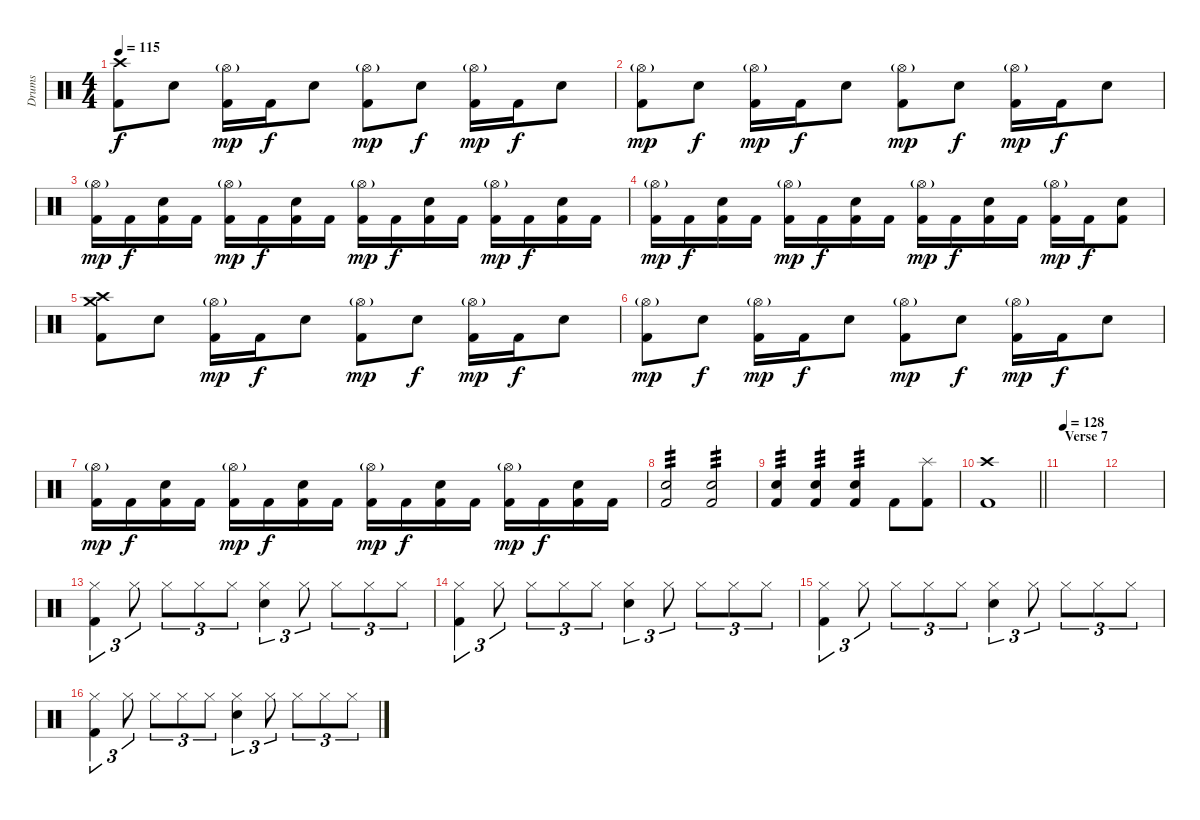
\track ("Drums" "Drums") {instrument percussion}
\staff {score}
\articulation defaults
\ts (4 4)
\tempo 115
\clef neutral
\ks c
("Crash high (hit)" "Kick (hit) 2").8{dy f} "Electric Snare (hit)".8 ("Hi-Hat (open)"{g} "Kick (hit) 2").16{dy mp} "Kick (hit) 2".16{dy f} "Electric Snare (hit)".8 ("Hi-Hat (open)"{g} "Kick (hit) 2").8{dy mp} "Electric Snare (hit)".8{dy f} ("Hi-Hat (open)"{g} "Kick (hit) 2").16{dy mp} "Kick (hit) 2".16{dy f} "Electric Snare (hit)".8 |
("Hi-Hat (open)"{g} "Kick (hit) 2").8{dy mp} "Electric Snare (hit)".8{dy f} ("Hi-Hat (open)"{g} "Kick (hit) 2").16{dy mp} "Kick (hit) 2".16{dy f} "Electric Snare (hit)".8 ("Hi-Hat (open)"{g} "Kick (hit) 2").8{dy mp} "Electric Snare (hit)".8{dy f} ("Hi-Hat (open)"{g} "Kick (hit) 2").16{dy mp} "Kick (hit) 2".16{dy f} "Electric Snare (hit)".8 |
("Hi-Hat (open)"{g} "Kick (hit) 2").16{dy mp} "Kick (hit) 2".16{dy f} ("Electric Snare (hit)" "Kick (hit) 2").16 "Kick (hit) 2".16 ("Hi-Hat (open)"{g} "Kick (hit) 2").16{dy mp} "Kick (hit) 2".16{dy f} ("Electric Snare (hit)" "Kick (hit) 2").16 "Kick (hit) 2".16 ("Hi-Hat (open)"{g} "Kick (hit) 2").16{dy mp} "Kick (hit) 2".16{dy f} ("Electric Snare (hit)" "Kick (hit) 2").16 "Kick (hit) 2".16 ("Hi-Hat (open)"{g} "Kick (hit) 2").16{dy mp} "Kick (hit) 2".16{dy f} ("Electric Snare (hit)" "Kick (hit) 2").16 "Kick (hit) 2".16 |
("Hi-Hat (open)"{g} "Kick (hit) 2").16{dy mp} "Kick (hit) 2".16{dy f} ("Electric Snare (hit)" "Kick (hit) 2").16 "Kick (hit) 2".16 ("Hi-Hat (open)"{g} "Kick (hit) 2").16{dy mp} "Kick (hit) 2".16{dy f} ("Electric Snare (hit)" "Kick (hit) 2").16 "Kick (hit) 2".16 ("Hi-Hat (open)"{g} "Kick (hit) 2").16{dy mp} "Kick (hit) 2".16{dy f} ("Electric Snare (hit)" "Kick (hit) 2").16 "Kick (hit) 2".16 ("Hi-Hat (open)"{g} "Kick (hit) 2").16{dy mp} "Kick (hit) 2".16{dy f} ("Electric Snare (hit)" "Kick (hit) 2").8 |
("Crash high (hit)" "Crash medium (hit)" "Kick (hit) 2").8 "Electric Snare (hit)".8 ("Hi-Hat (open)"{g} "Kick (hit) 2").16{dy mp} "Kick (hit) 2".16{dy f} "Electric Snare (hit)".8 ("Hi-Hat (open)"{g} "Kick (hit) 2").8{dy mp} "Electric Snare (hit)".8{dy f} ("Hi-Hat (open)"{g} "Kick (hit) 2").16{dy mp} "Kick (hit) 2".16{dy f} "Electric Snare (hit)".8 |
("Hi-Hat (open)"{g} "Kick (hit) 2").8{dy mp} "Electric Snare (hit)".8{dy f} ("Hi-Hat (open)"{g} "Kick (hit) 2").16{dy mp} "Kick (hit) 2".16{dy f} "Electric Snare (hit)".8 ("Hi-Hat (open)"{g} "Kick (hit) 2").8{dy mp} "Electric Snare (hit)".8{dy f} ("Hi-Hat (open)"{g} "Kick (hit) 2").16{dy mp} "Kick (hit) 2".16{dy f} "Electric Snare (hit)".8 |
("Hi-Hat (open)"{g} "Kick (hit) 2").16{dy mp} "Kick (hit) 2".16{dy f} ("Electric Snare (hit)" "Kick (hit) 2").16 "Kick (hit) 2".16 ("Hi-Hat (open)"{g} "Kick (hit) 2").16{dy mp} "Kick (hit) 2".16{dy f} ("Electric Snare (hit)" "Kick (hit) 2").16 "Kick (hit) 2".16 ("Hi-Hat (open)"{g} "Kick (hit) 2").16{dy mp} "Kick (hit) 2".16{dy f} ("Electric Snare (hit)" "Kick (hit) 2").16 "Kick (hit) 2".16 ("Hi-Hat (open)"{g} "Kick (hit) 2").16{dy mp} "Kick (hit) 2".16{dy f} ("Electric Snare (hit)" "Kick (hit) 2").16 "Kick (hit) 2".16 |
("Electric Snare (hit)" "Kick (hit) 2").2{tp 3} ("Electric Snare (hit)" "Kick (hit) 2").2{tp 3} |
("Electric Snare (hit)" "Kick (hit) 2").4{tp 3} ("Electric Snare (hit)" "Kick (hit) 2").4{tp 3} ("Electric Snare (hit)" "Kick (hit) 2").4{tp 3} "Kick (hit) 2".8 ("Splash (hit)" "Kick (hit) 2").8 |
\barLineRight lightlight
("Crash high (hit)" "Kick (hit) 2").1 |
\section ("" "Verse 7")
\tempo 128
|
|
("Hi-Hat (closed)" "Kick (hit) 2").4{tu (3 2)} "Hi-Hat (closed)".8{tu (3 2)} "Hi-Hat (closed)".8{tu (3 2)} "Hi-Hat (closed)".8{tu (3 2)} "Hi-Hat (closed)".8{tu (3 2)} ("Hi-Hat (closed)" "Electric Snare (hit)").4{tu (3 2)} "Hi-Hat (closed)".8{tu (3 2)} "Hi-Hat (closed)".8{tu (3 2)} "Hi-Hat (closed)".8{tu (3 2)} "Hi-Hat (closed)".8{tu (3 2)} |
("Hi-Hat (closed)" "Kick (hit) 2").4{tu (3 2)} "Hi-Hat (closed)".8{tu (3 2)} "Hi-Hat (closed)".8{tu (3 2)} "Hi-Hat (closed)".8{tu (3 2)} "Hi-Hat (closed)".8{tu (3 2)} ("Hi-Hat (closed)" "Electric Snare (hit)").4{tu (3 2)} "Hi-Hat (closed)".8{tu (3 2)} "Hi-Hat (closed)".8{tu (3 2)} "Hi-Hat (closed)".8{tu (3 2)} "Hi-Hat (closed)".8{tu (3 2)} |
("Hi-Hat (closed)" "Kick (hit) 2").4{tu (3 2)} "Hi-Hat (closed)".8{tu (3 2)} "Hi-Hat (closed)".8{tu (3 2)} "Hi-Hat (closed)".8{tu (3 2)} "Hi-Hat (closed)".8{tu (3 2)} ("Hi-Hat (closed)" "Electric Snare (hit)").4{tu (3 2)} "Hi-Hat (closed)".8{tu (3 2)} "Hi-Hat (closed)".8{tu (3 2)} "Hi-Hat (closed)".8{tu (3 2)} "Hi-Hat (closed)".8{tu (3 2)} |
("Hi-Hat (closed)" "Kick (hit) 2").4{tu (3 2)} "Hi-Hat (closed)".8{tu (3 2)} "Hi-Hat (closed)".8{tu (3 2)} "Hi-Hat (closed)".8{tu (3 2)} "Hi-Hat (closed)".8{tu (3 2)} ("Hi-Hat (closed)" "Electric Snare (hit)").4{tu (3 2)} "Hi-Hat (closed)".8{tu (3 2)} "Hi-Hat (closed)".8{tu (3 2)} "Hi-Hat (closed)".8{tu (3 2)} "Hi-Hat (closed)".8{tu (3 2)}
